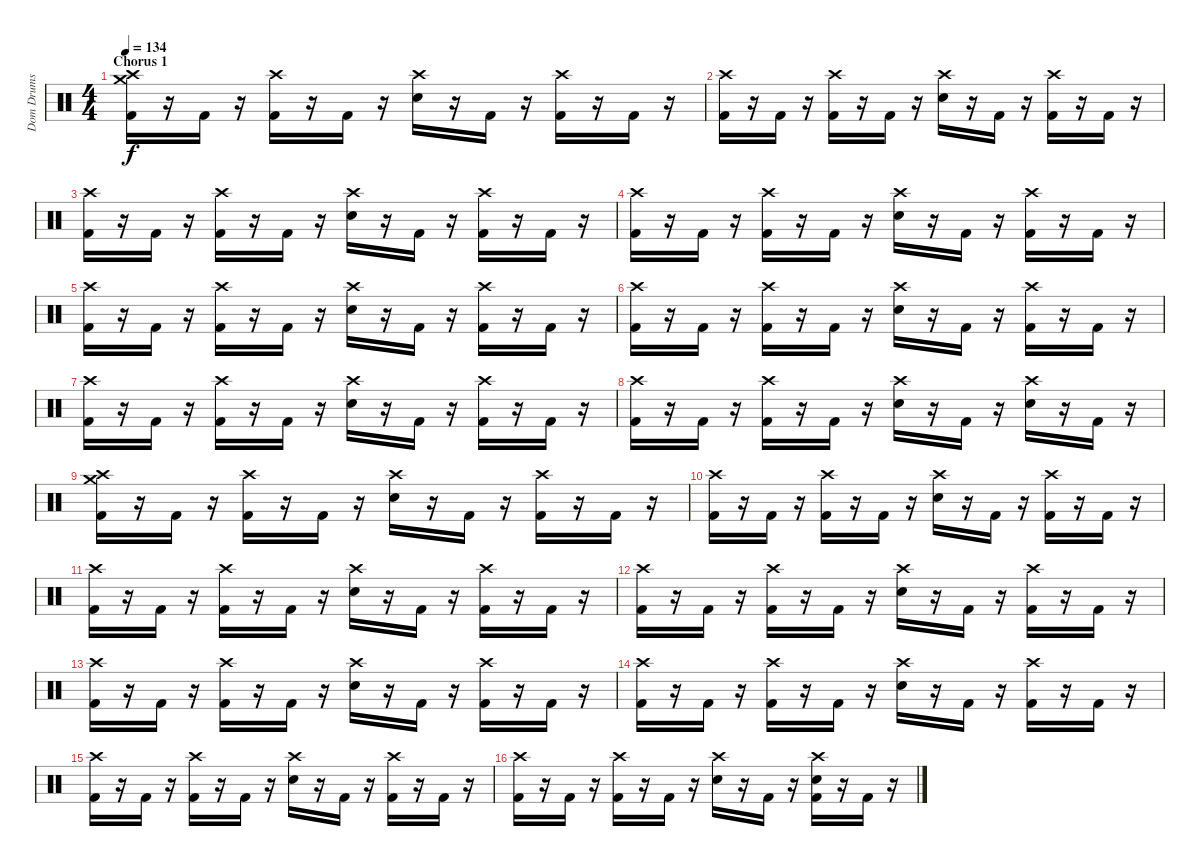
\track ("Dom Drums" "Dom Drums") {instrument percussion}
\staff {score}
\articulation defaults
\ts (4 4)
\section ("" "Chorus 1")
\tempo 134
\clef neutral
\ks c
("Crash high (hit)" "Crash medium (hit)" "Kick (hit) 2").16{dy f} r.16 "Kick (hit) 2".16 r.16 ("Crash high (hit)" "Kick (hit) 2").16 r.16 "Kick (hit) 2".16 r.16 ("Crash high (hit)" "Electric Snare (hit)").16 r.16 "Kick (hit) 2".16 r.16 ("Crash high (hit)" "Kick (hit) 2").16 r.16 "Kick (hit) 2".16 r.16 |
("Crash high (hit)" "Kick (hit) 2").16 r.16 "Kick (hit) 2".16 r.16 ("Crash high (hit)" "Kick (hit) 2").16 r.16 "Kick (hit) 2".16 r.16 ("Crash high (hit)" "Electric Snare (hit)").16 r.16 "Kick (hit) 2".16 r.16 ("Crash high (hit)" "Kick (hit) 2").16 r.16 "Kick (hit) 2".16 r.16 |
("Crash high (hit)" "Kick (hit) 2").16 r.16 "Kick (hit) 2".16 r.16 ("Crash high (hit)" "Kick (hit) 2").16 r.16 "Kick (hit) 2".16 r.16 ("Crash high (hit)" "Electric Snare (hit)").16 r.16 "Kick (hit) 2".16 r.16 ("Crash high (hit)" "Kick (hit) 2").16 r.16 "Kick (hit) 2".16 r.16 |
("Crash high (hit)" "Kick (hit) 2").16 r.16 "Kick (hit) 2".16 r.16 ("Crash high (hit)" "Kick (hit) 2").16 r.16 "Kick (hit) 2".16 r.16 ("Crash high (hit)" "Electric Snare (hit)").16 r.16 "Kick (hit) 2".16 r.16 ("Crash high (hit)" "Kick (hit) 2").16 r.16 "Kick (hit) 2".16 r.16 |
("Crash high (hit)" "Kick (hit) 2").16 r.16 "Kick (hit) 2".16 r.16 ("Crash high (hit)" "Kick (hit) 2").16 r.16 "Kick (hit) 2".16 r.16 ("Crash high (hit)" "Electric Snare (hit)").16 r.16 "Kick (hit) 2".16 r.16 ("Crash high (hit)" "Kick (hit) 2").16 r.16 "Kick (hit) 2".16 r.16 |
("Crash high (hit)" "Kick (hit) 2").16 r.16 "Kick (hit) 2".16 r.16 ("Crash high (hit)" "Kick (hit) 2").16 r.16 "Kick (hit) 2".16 r.16 ("Crash high (hit)" "Electric Snare (hit)").16 r.16 "Kick (hit) 2".16 r.16 ("Crash high (hit)" "Kick (hit) 2").16 r.16 "Kick (hit) 2".16 r.16 |
("Crash high (hit)" "Kick (hit) 2").16 r.16 "Kick (hit) 2".16 r.16 ("Crash high (hit)" "Kick (hit) 2").16 r.16 "Kick (hit) 2".16 r.16 ("Crash high (hit)" "Electric Snare (hit)").16 r.16 "Kick (hit) 2".16 r.16 ("Crash high (hit)" "Kick (hit) 2").16 r.16 "Kick (hit) 2".16 r.16 |
("Crash high (hit)" "Kick (hit) 2").16 r.16 "Kick (hit) 2".16 r.16 ("Crash high (hit)" "Kick (hit) 2").16 r.16 "Kick (hit) 2".16 r.16 ("Crash high (hit)" "Electric Snare (hit)").16 r.16 "Kick (hit) 2".16 r.16 ("Crash high (hit)" "Electric Snare (hit)").16 r.16 "Kick (hit) 2".16 r.16 |
("Crash high (hit)" "Crash medium (hit)" "Kick (hit) 2").16 r.16 "Kick (hit) 2".16 r.16 ("Crash high (hit)" "Kick (hit) 2").16 r.16 "Kick (hit) 2".16 r.16 ("Crash high (hit)" "Electric Snare (hit)").16 r.16 "Kick (hit) 2".16 r.16 ("Crash high (hit)" "Kick (hit) 2").16 r.16 "Kick (hit) 2".16 r.16 |
("Crash high (hit)" "Kick (hit) 2").16 r.16 "Kick (hit) 2".16 r.16 ("Crash high (hit)" "Kick (hit) 2").16 r.16 "Kick (hit) 2".16 r.16 ("Crash high (hit)" "Electric Snare (hit)").16 r.16 "Kick (hit) 2".16 r.16 ("Crash high (hit)" "Kick (hit) 2").16 r.16 "Kick (hit) 2".16 r.16 |
("Crash high (hit)" "Kick (hit) 2").16 r.16 "Kick (hit) 2".16 r.16 ("Crash high (hit)" "Kick (hit) 2").16 r.16 "Kick (hit) 2".16 r.16 ("Crash high (hit)" "Electric Snare (hit)").16 r.16 "Kick (hit) 2".16 r.16 ("Crash high (hit)" "Kick (hit) 2").16 r.16 "Kick (hit) 2".16 r.16 |
("Crash high (hit)" "Kick (hit) 2").16 r.16 "Kick (hit) 2".16 r.16 ("Crash high (hit)" "Kick (hit) 2").16 r.16 "Kick (hit) 2".16 r.16 ("Crash high (hit)" "Electric Snare (hit)").16 r.16 "Kick (hit) 2".16 r.16 ("Crash high (hit)" "Kick (hit) 2").16 r.16 "Kick (hit) 2".16 r.16 |
("Crash high (hit)" "Kick (hit) 2").16 r.16 "Kick (hit) 2".16 r.16 ("Crash high (hit)" "Kick (hit) 2").16 r.16 "Kick (hit) 2".16 r.16 ("Crash high (hit)" "Electric Snare (hit)").16 r.16 "Kick (hit) 2".16 r.16 ("Crash high (hit)" "Kick (hit) 2").16 r.16 "Kick (hit) 2".16 r.16 |
("Crash high (hit)" "Kick (hit) 2").16 r.16 "Kick (hit) 2".16 r.16 ("Crash high (hit)" "Kick (hit) 2").16 r.16 "Kick (hit) 2".16 r.16 ("Crash high (hit)" "Electric Snare (hit)").16 r.16 "Kick (hit) 2".16 r.16 ("Crash high (hit)" "Kick (hit) 2").16 r.16 "Kick (hit) 2".16 r.16 |
("Crash high (hit)" "Kick (hit) 2").16 r.16 "Kick (hit) 2".16 r.16 ("Crash high (hit)" "Kick (hit) 2").16 r.16 "Kick (hit) 2".16 r.16 ("Crash high (hit)" "Electric Snare (hit)").16 r.16 "Kick (hit) 2".16 r.16 ("Crash high (hit)" "Kick (hit) 2").16 r.16 "Kick (hit) 2".16 r.16 |
("Crash high (hit)" "Kick (hit) 2").16 r.16 "Kick (hit) 2".16 r.16 ("Crash high (hit)" "Kick (hit) 2").16 r.16 "Kick (hit) 2".16 r.16 ("Crash high (hit)" "Electric Snare (hit)").16 r.16 "Kick (hit) 2".16 r.16 ("Crash high (hit)" "Electric Snare (hit)" "Kick (hit) 2").16 r.16 "Kick (hit) 2".16 r.16
